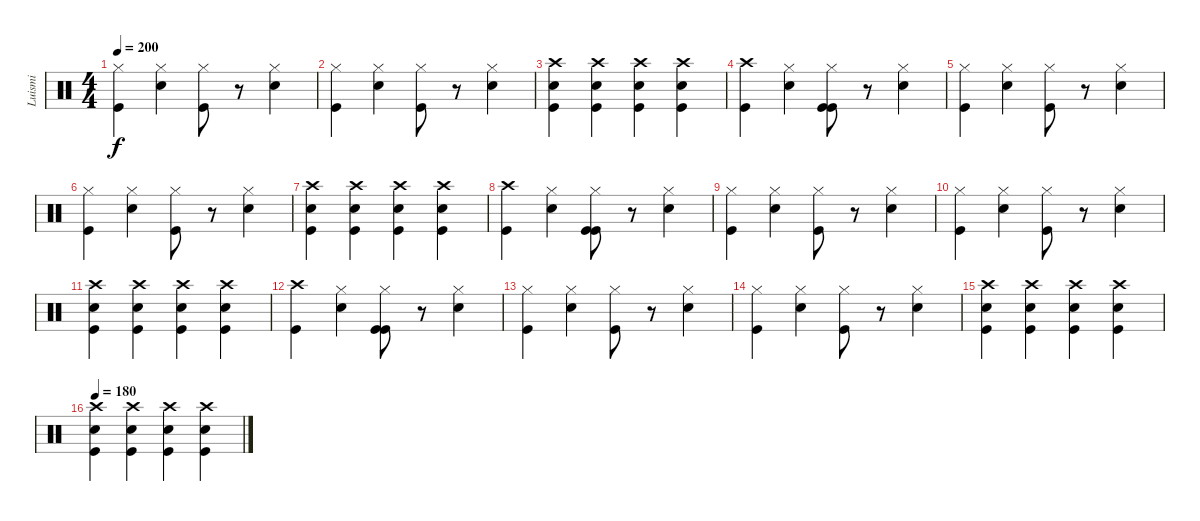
\track ("Luismi" "Luismi") {instrument percussion}
\staff {score}
\articulation defaults
\ts (4 4)
\tempo 200
\clef neutral
\ks c
("Kick (hit)" "Hi-Hat (closed)").4{dy f} ("Snare (hit) 2" "Hi-Hat (closed)").4 ("Kick (hit)" "Hi-Hat (closed)").8 r.8 ("Snare (hit) 2" "Hi-Hat (closed)").4 |
("Kick (hit)" "Hi-Hat (closed)").4 ("Snare (hit) 2" "Hi-Hat (closed)").4 ("Kick (hit)" "Hi-Hat (closed)").8 r.8 ("Snare (hit) 2" "Hi-Hat (closed)").4 |
("Kick (hit)" "Snare (hit) 2" "Crash high (hit)").4 ("Snare (hit) 2" "Kick (hit)" "Crash high (hit)").4 ("Snare (hit) 2" "Kick (hit)" "Crash high (hit)").4 ("Snare (hit) 2" "Kick (hit)" "Crash high (hit)").4 |
("Crash high (hit)" "Kick (hit)").4 ("Snare (hit) 2" "Hi-Hat (closed)").4 ("Kick (hit)" "Kick (hit)" "Hi-Hat (closed)").8 r.8 ("Snare (hit) 2" "Hi-Hat (closed)").4 |
("Kick (hit)" "Hi-Hat (closed)").4 ("Snare (hit) 2" "Hi-Hat (closed)").4 ("Kick (hit)" "Hi-Hat (closed)").8 r.8 ("Snare (hit) 2" "Hi-Hat (closed)").4 |
("Kick (hit)" "Hi-Hat (closed)").4 ("Snare (hit) 2" "Hi-Hat (closed)").4 ("Kick (hit)" "Hi-Hat (closed)").8 r.8 ("Snare (hit) 2" "Hi-Hat (closed)").4 |
("Kick (hit)" "Snare (hit) 2" "Crash high (hit)").4 ("Snare (hit) 2" "Kick (hit)" "Crash high (hit)").4 ("Snare (hit) 2" "Kick (hit)" "Crash high (hit)").4 ("Snare (hit) 2" "Kick (hit)" "Crash high (hit)").4 |
("Crash high (hit)" "Kick (hit)").4 ("Snare (hit) 2" "Hi-Hat (closed)").4 ("Kick (hit)" "Kick (hit)" "Hi-Hat (closed)").8 r.8 ("Snare (hit) 2" "Hi-Hat (closed)").4 |
("Kick (hit)" "Hi-Hat (closed)").4 ("Snare (hit) 2" "Hi-Hat (closed)").4 ("Kick (hit)" "Hi-Hat (closed)").8 r.8 ("Snare (hit) 2" "Hi-Hat (closed)").4 |
("Kick (hit)" "Hi-Hat (closed)").4 ("Snare (hit) 2" "Hi-Hat (closed)").4 ("Kick (hit)" "Hi-Hat (closed)").8 r.8 ("Snare (hit) 2" "Hi-Hat (closed)").4 |
("Kick (hit)" "Snare (hit) 2" "Crash high (hit)").4 ("Snare (hit) 2" "Kick (hit)" "Crash high (hit)").4 ("Snare (hit) 2" "Kick (hit)" "Crash high (hit)").4 ("Snare (hit) 2" "Kick (hit)" "Crash high (hit)").4 |
("Crash high (hit)" "Kick (hit)").4 ("Snare (hit) 2" "Hi-Hat (closed)").4 ("Kick (hit)" "Kick (hit)" "Hi-Hat (closed)").8 r.8 ("Snare (hit) 2" "Hi-Hat (closed)").4 |
("Kick (hit)" "Hi-Hat (closed)").4 ("Snare (hit) 2" "Hi-Hat (closed)").4 ("Kick (hit)" "Hi-Hat (closed)").8 r.8 ("Snare (hit) 2" "Hi-Hat (closed)").4 |
("Kick (hit)" "Hi-Hat (closed)").4 ("Snare (hit) 2" "Hi-Hat (closed)").4 ("Kick (hit)" "Hi-Hat (closed)").8 r.8 ("Snare (hit) 2" "Hi-Hat (closed)").4 |
("Kick (hit)" "Snare (hit) 2" "Crash high (hit)").4 ("Snare (hit) 2" "Kick (hit)" "Crash high (hit)").4 ("Snare (hit) 2" "Kick (hit)" "Crash high (hit)").4 ("Snare (hit) 2" "Kick (hit)" "Crash high (hit)").4 |
\tempo 180
("Kick (hit)" "Snare (hit) 2" "Crash high (hit)").4 ("Snare (hit) 2" "Kick (hit)" "Crash high (hit)").4 ("Snare (hit) 2" "Kick (hit)" "Crash high (hit)").4 ("Snare (hit) 2" "Kick (hit)" "Crash high (hit)").4
